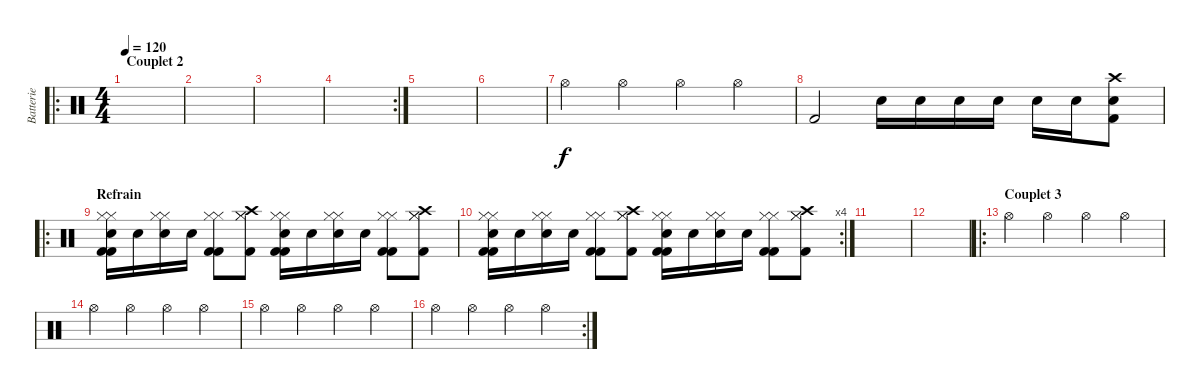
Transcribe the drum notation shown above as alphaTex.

\track ("Batterie" "Batterie") {instrument percussion}
\staff {score}
\articulation defaults
\ro
\ts (4 4)
\section ("" "Couplet 2")
\tempo 120
\clef neutral
\ks c
|
|
|
\rc 2
|
|
|
"Hi-Hat (open)".4 "Hi-Hat (open)".4 "Hi-Hat (open)".4 "Hi-Hat (open)".4 |
"Kick (hit) 2".2 "Snare (hit) 2".16 "Snare (hit) 2".16 "Snare (hit) 2".16 "Snare (hit) 2".16 "Snare (hit) 2".16 "Snare (hit) 2".16 ("Snare (hit) 2" "Kick (hit) 2" "Crash high (hit)").8 |
\ro
\section ("" "Refrain")
("Snare (hit) 2" "Kick (hit) 2" "Kick (hit) 2" "Hi-Hat (closed)" "Hi-Hat (closed)").16 "Snare (hit) 2".16 ("Snare (hit) 2" "Hi-Hat (closed)" "Hi-Hat (closed)").16 "Snare (hit) 2".16 ("Kick (hit) 2" "Kick (hit) 2" "Hi-Hat (closed)" "Hi-Hat (closed)").8 ("Crash high (hit)" "Kick (hit) 2" "Hi-Hat (closed)" "Hi-Hat (closed)").8 ("Electric Snare (hit)" "Kick (hit) 2" "Kick (hit) 2" "Hi-Hat (closed)" "Hi-Hat (closed)").16 "Electric Snare (hit)".16 ("Electric Snare (hit)" "Hi-Hat (closed)" "Hi-Hat (closed)").16 "Electric Snare (hit)".16 ("Kick (hit) 2" "Kick (hit) 2" "Hi-Hat (closed)" "Hi-Hat (closed)").8 ("Crash high (hit)" "Kick (hit) 2" "Hi-Hat (closed)" "Hi-Hat (closed)").8 |
\rc 4
("Snare (hit) 2" "Kick (hit) 2" "Kick (hit) 2" "Hi-Hat (closed)" "Hi-Hat (closed)").16 "Snare (hit) 2".16 ("Snare (hit) 2" "Hi-Hat (closed)" "Hi-Hat (closed)").16 "Snare (hit) 2".16 ("Kick (hit) 2" "Kick (hit) 2" "Hi-Hat (closed)" "Hi-Hat (closed)").8 ("Crash high (hit)" "Kick (hit) 2" "Hi-Hat (closed)" "Hi-Hat (closed)").8 ("Electric Snare (hit)" "Kick (hit) 2" "Kick (hit) 2" "Hi-Hat (closed)" "Hi-Hat (closed)").16 "Electric Snare (hit)".16 ("Electric Snare (hit)" "Hi-Hat (closed)" "Hi-Hat (closed)").16 "Electric Snare (hit)".16 ("Kick (hit) 2" "Kick (hit) 2" "Hi-Hat (closed)" "Hi-Hat (closed)").8 ("Crash high (hit)" "Kick (hit) 2" "Hi-Hat (closed)" "Hi-Hat (closed)").8 |
|
|
\ro
\section ("" "Couplet 3")
"Hi-Hat (open)".4 "Hi-Hat (open)".4 "Hi-Hat (open)".4 "Hi-Hat (open)".4 |
"Hi-Hat (open)".4 "Hi-Hat (open)".4 "Hi-Hat (open)".4 "Hi-Hat (open)".4 |
"Hi-Hat (open)".4 "Hi-Hat (open)".4 "Hi-Hat (open)".4 "Hi-Hat (open)".4 |
\rc 2 "Hi-Hat (open)".4 "Hi-Hat (open)".4 "Hi-Hat (open)".4 "Hi-Hat (open)".4
